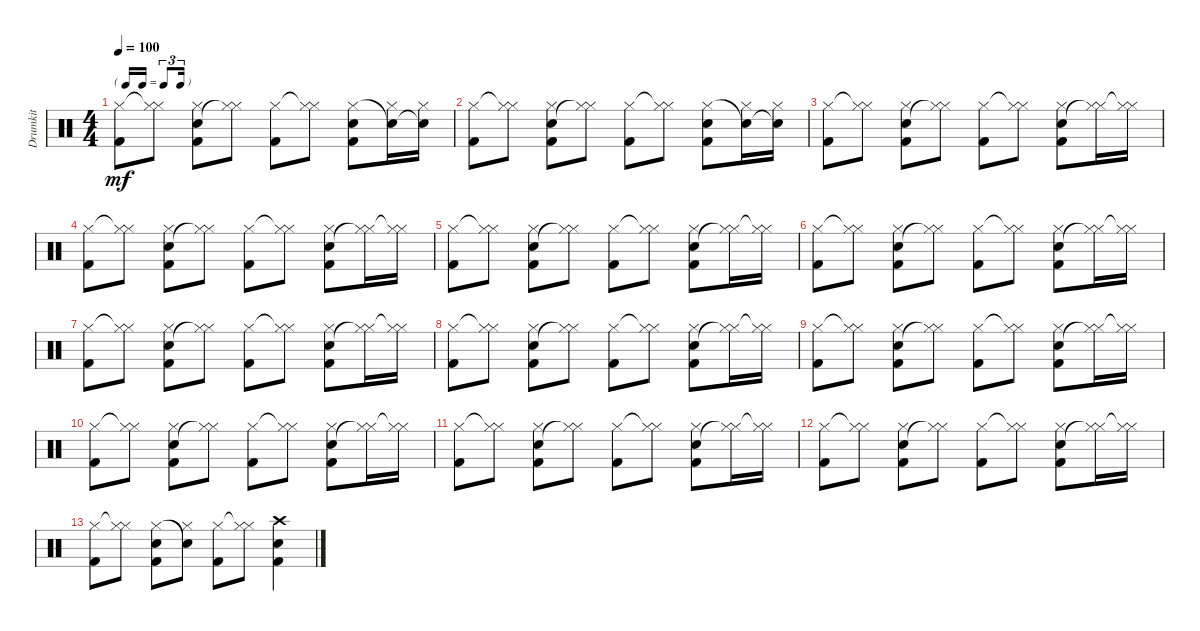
\track ("Drumkit" "Drumkit") {instrument percussion}
\staff {score}
\articulation defaults
\ts (4 4)
\tf triplet16th
\tempo 100
\clef neutral
\ks c
("Hi-Hat (closed)" "Kick (hit) 2").8{dy mf} ("Hi-Hat (closed)"{t} "Hi-Hat (closed)").8 ("Snare (hit) 2" "Hi-Hat (closed)" "Kick (hit) 2").8 ("Hi-Hat (closed)"{t} "Hi-Hat (closed)").8 ("Hi-Hat (closed)" "Kick (hit) 2").8 ("Hi-Hat (closed)"{t} "Hi-Hat (closed)").8 ("Hi-Hat (closed)" "Snare (hit) 2" "Kick (hit) 2").8 ("Snare (hit) 2"{t} "Hi-Hat (closed)").16 ("Snare (hit) 2"{t} "Hi-Hat (closed)").16 |
("Hi-Hat (closed)" "Kick (hit) 2").8 ("Hi-Hat (closed)"{t} "Hi-Hat (closed)").8 ("Snare (hit) 2" "Hi-Hat (closed)" "Kick (hit) 2").8 ("Hi-Hat (closed)"{t} "Hi-Hat (closed)").8 ("Hi-Hat (closed)" "Kick (hit) 2").8 ("Hi-Hat (closed)"{t} "Hi-Hat (closed)").8 ("Hi-Hat (closed)" "Snare (hit) 2" "Kick (hit) 2").8 ("Snare (hit) 2"{t} "Hi-Hat (closed)").16 ("Snare (hit) 2"{t} "Hi-Hat (closed)").16 |
("Hi-Hat (closed)" "Kick (hit) 2").8 ("Hi-Hat (closed)"{t} "Hi-Hat (closed)").8 ("Snare (hit) 2" "Hi-Hat (closed)" "Kick (hit) 2").8 ("Hi-Hat (closed)"{t} "Hi-Hat (closed)").8 ("Hi-Hat (closed)" "Kick (hit) 2").8 ("Hi-Hat (closed)"{t} "Hi-Hat (closed)").8 ("Snare (hit) 2" "Hi-Hat (closed)" "Kick (hit) 2").8 ("Hi-Hat (closed)"{t} "Hi-Hat (closed)").16 ("Hi-Hat (closed)"{t} "Hi-Hat (closed)").16 |
("Hi-Hat (closed)" "Kick (hit) 2").8 ("Hi-Hat (closed)"{t} "Hi-Hat (closed)").8 ("Snare (hit) 2" "Hi-Hat (closed)" "Kick (hit) 2").8 ("Hi-Hat (closed)"{t} "Hi-Hat (closed)").8 ("Hi-Hat (closed)" "Kick (hit) 2").8 ("Hi-Hat (closed)"{t} "Hi-Hat (closed)").8 ("Snare (hit) 2" "Hi-Hat (closed)" "Kick (hit) 2").8 ("Hi-Hat (closed)"{t} "Hi-Hat (closed)").16 ("Hi-Hat (closed)"{t} "Hi-Hat (closed)").16 |
("Hi-Hat (closed)" "Kick (hit) 2").8 ("Hi-Hat (closed)"{t} "Hi-Hat (closed)").8 ("Snare (hit) 2" "Hi-Hat (closed)" "Kick (hit) 2").8 ("Hi-Hat (closed)"{t} "Hi-Hat (closed)").8 ("Hi-Hat (closed)" "Kick (hit) 2").8 ("Hi-Hat (closed)"{t} "Hi-Hat (closed)").8 ("Snare (hit) 2" "Hi-Hat (closed)" "Kick (hit) 2").8 ("Hi-Hat (closed)"{t} "Hi-Hat (closed)").16 ("Hi-Hat (closed)"{t} "Hi-Hat (closed)").16 |
("Hi-Hat (closed)" "Kick (hit) 2").8 ("Hi-Hat (closed)"{t} "Hi-Hat (closed)").8 ("Snare (hit) 2" "Hi-Hat (closed)" "Kick (hit) 2").8 ("Hi-Hat (closed)"{t} "Hi-Hat (closed)").8 ("Hi-Hat (closed)" "Kick (hit) 2").8 ("Hi-Hat (closed)"{t} "Hi-Hat (closed)").8 ("Snare (hit) 2" "Hi-Hat (closed)" "Kick (hit) 2").8 ("Hi-Hat (closed)"{t} "Hi-Hat (closed)").16 ("Hi-Hat (closed)"{t} "Hi-Hat (closed)").16 |
("Hi-Hat (closed)" "Kick (hit) 2").8 ("Hi-Hat (closed)"{t} "Hi-Hat (closed)").8 ("Snare (hit) 2" "Hi-Hat (closed)" "Kick (hit) 2").8 ("Hi-Hat (closed)"{t} "Hi-Hat (closed)").8 ("Hi-Hat (closed)" "Kick (hit) 2").8 ("Hi-Hat (closed)"{t} "Hi-Hat (closed)").8 ("Snare (hit) 2" "Hi-Hat (closed)" "Kick (hit) 2").8 ("Hi-Hat (closed)"{t} "Hi-Hat (closed)").16 ("Hi-Hat (closed)"{t} "Hi-Hat (closed)").16 |
("Hi-Hat (closed)" "Kick (hit) 2").8 ("Hi-Hat (closed)"{t} "Hi-Hat (closed)").8 ("Snare (hit) 2" "Hi-Hat (closed)" "Kick (hit) 2").8 ("Hi-Hat (closed)"{t} "Hi-Hat (closed)").8 ("Hi-Hat (closed)" "Kick (hit) 2").8 ("Hi-Hat (closed)"{t} "Hi-Hat (closed)").8 ("Snare (hit) 2" "Hi-Hat (closed)" "Kick (hit) 2").8 ("Hi-Hat (closed)"{t} "Hi-Hat (closed)").16 ("Hi-Hat (closed)"{t} "Hi-Hat (closed)").16 |
("Hi-Hat (closed)" "Kick (hit) 2").8 ("Hi-Hat (closed)"{t} "Hi-Hat (closed)").8 ("Snare (hit) 2" "Hi-Hat (closed)" "Kick (hit) 2").8 ("Hi-Hat (closed)"{t} "Hi-Hat (closed)").8 ("Hi-Hat (closed)" "Kick (hit) 2").8 ("Hi-Hat (closed)"{t} "Hi-Hat (closed)").8 ("Snare (hit) 2" "Hi-Hat (closed)" "Kick (hit) 2").8 ("Hi-Hat (closed)"{t} "Hi-Hat (closed)").16 ("Hi-Hat (closed)"{t} "Hi-Hat (closed)").16 |
("Hi-Hat (closed)" "Kick (hit) 2").8 ("Hi-Hat (closed)"{t} "Hi-Hat (closed)").8 ("Snare (hit) 2" "Hi-Hat (closed)" "Kick (hit) 2").8 ("Hi-Hat (closed)"{t} "Hi-Hat (closed)").8 ("Hi-Hat (closed)" "Kick (hit) 2").8 ("Hi-Hat (closed)"{t} "Hi-Hat (closed)").8 ("Snare (hit) 2" "Hi-Hat (closed)" "Kick (hit) 2").8 ("Hi-Hat (closed)"{t} "Hi-Hat (closed)").16 ("Hi-Hat (closed)"{t} "Hi-Hat (closed)").16 |
("Hi-Hat (closed)" "Kick (hit) 2").8 ("Hi-Hat (closed)"{t} "Hi-Hat (closed)").8 ("Snare (hit) 2" "Hi-Hat (closed)" "Kick (hit) 2").8 ("Hi-Hat (closed)"{t} "Hi-Hat (closed)").8 ("Hi-Hat (closed)" "Kick (hit) 2").8 ("Hi-Hat (closed)"{t} "Hi-Hat (closed)").8 ("Snare (hit) 2" "Hi-Hat (closed)" "Kick (hit) 2").8 ("Hi-Hat (closed)"{t} "Hi-Hat (closed)").16 ("Hi-Hat (closed)"{t} "Hi-Hat (closed)").16 |
("Hi-Hat (closed)" "Kick (hit) 2").8 ("Hi-Hat (closed)"{t} "Hi-Hat (closed)").8 ("Snare (hit) 2" "Hi-Hat (closed)" "Kick (hit) 2").8 ("Hi-Hat (closed)"{t} "Hi-Hat (closed)").8 ("Hi-Hat (closed)" "Kick (hit) 2").8 ("Hi-Hat (closed)"{t} "Hi-Hat (closed)").8 ("Snare (hit) 2" "Hi-Hat (closed)" "Kick (hit) 2").8 ("Hi-Hat (closed)"{t} "Hi-Hat (closed)").16 ("Hi-Hat (closed)"{t} "Hi-Hat (closed)").16 |
("Hi-Hat (closed)" "Kick (hit) 2").8 ("Hi-Hat (closed)"{t} "Hi-Hat (closed)").8 ("Hi-Hat (closed)" "Snare (hit) 2" "Kick (hit) 2").8 ("Snare (hit) 2"{t} "Hi-Hat (closed)").8 ("Hi-Hat (closed)" "Kick (hit) 2").8 ("Hi-Hat (closed)"{t} "Hi-Hat (closed)").8 ("Snare (hit) 2" "Kick (hit) 2" "Crash high (hit)").4
